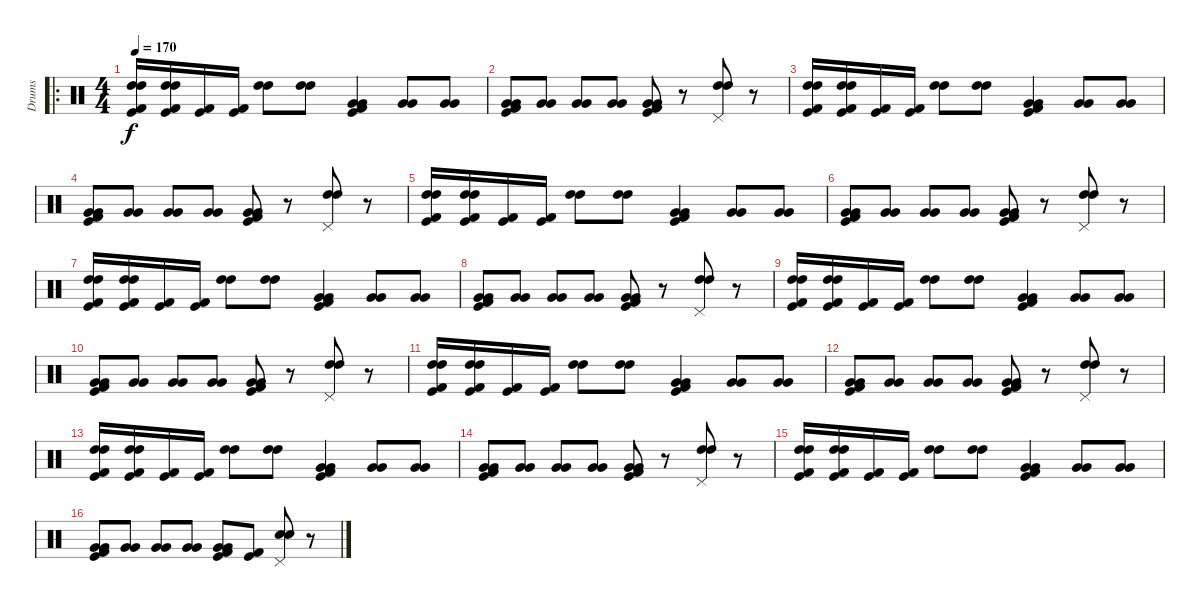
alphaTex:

\track ("Drums" "Drums") {instrument percussion}
\staff {score}
\articulation defaults
\ro
\ts (4 4)
\tempo 170
\clef neutral
\ks c
("High Tom (hit)" "High Tom (hit)" "Kick (hit) 2" "Kick (hit)").16{dy f} ("High Tom (hit)" "High Tom (hit)" "Kick (hit) 2" "Kick (hit)").16 ("Kick (hit) 2" "Kick (hit)").16 ("Kick (hit) 2" "Kick (hit)").16 ("High Tom (hit)" "High Tom (hit)").8 ("High Tom (hit)" "High Tom (hit)").8 ("Very Low Tom (hit)" "Very Low Tom (hit)" "Kick (hit) 2" "Kick (hit)").4 ("Very Low Tom (hit)" "Very Low Tom (hit)").8 ("Very Low Tom (hit)" "Very Low Tom (hit)").8 |
("Very Low Tom (hit)" "Very Low Tom (hit)" "Kick (hit) 2" "Kick (hit)").8 ("Very Low Tom (hit)" "Very Low Tom (hit)").8 ("Very Low Tom (hit)" "Very Low Tom (hit)").8 ("Very Low Tom (hit)" "Very Low Tom (hit)").8 ("Very Low Tom (hit)" "Very Low Tom (hit)" "Kick (hit) 2" "Kick (hit)").8 r.8 ("Pedal Hi-Hat (hit)" "High Tom (hit)" "High Tom (hit)").8 r.8 |
("High Tom (hit)" "High Tom (hit)" "Kick (hit) 2" "Kick (hit)").16 ("High Tom (hit)" "High Tom (hit)" "Kick (hit) 2" "Kick (hit)").16 ("Kick (hit) 2" "Kick (hit)").16 ("Kick (hit) 2" "Kick (hit)").16 ("High Tom (hit)" "High Tom (hit)").8 ("High Tom (hit)" "High Tom (hit)").8 ("Very Low Tom (hit)" "Very Low Tom (hit)" "Kick (hit) 2" "Kick (hit)").4 ("Very Low Tom (hit)" "Very Low Tom (hit)").8 ("Very Low Tom (hit)" "Very Low Tom (hit)").8 |
("Very Low Tom (hit)" "Very Low Tom (hit)" "Kick (hit) 2" "Kick (hit)").8 ("Very Low Tom (hit)" "Very Low Tom (hit)").8 ("Very Low Tom (hit)" "Very Low Tom (hit)").8 ("Very Low Tom (hit)" "Very Low Tom (hit)").8 ("Very Low Tom (hit)" "Very Low Tom (hit)" "Kick (hit) 2" "Kick (hit)").8 r.8 ("Pedal Hi-Hat (hit)" "High Tom (hit)" "High Tom (hit)").8 r.8 |
("High Tom (hit)" "High Tom (hit)" "Kick (hit) 2" "Kick (hit)").16 ("High Tom (hit)" "High Tom (hit)" "Kick (hit) 2" "Kick (hit)").16 ("Kick (hit) 2" "Kick (hit)").16 ("Kick (hit) 2" "Kick (hit)").16 ("High Tom (hit)" "High Tom (hit)").8 ("High Tom (hit)" "High Tom (hit)").8 ("Very Low Tom (hit)" "Very Low Tom (hit)" "Kick (hit) 2" "Kick (hit)").4 ("Very Low Tom (hit)" "Very Low Tom (hit)").8 ("Very Low Tom (hit)" "Very Low Tom (hit)").8 |
("Very Low Tom (hit)" "Very Low Tom (hit)" "Kick (hit) 2" "Kick (hit)").8 ("Very Low Tom (hit)" "Very Low Tom (hit)").8 ("Very Low Tom (hit)" "Very Low Tom (hit)").8 ("Very Low Tom (hit)" "Very Low Tom (hit)").8 ("Very Low Tom (hit)" "Very Low Tom (hit)" "Kick (hit) 2" "Kick (hit)").8 r.8 ("Pedal Hi-Hat (hit)" "High Tom (hit)" "High Tom (hit)").8 r.8 |
("High Tom (hit)" "High Tom (hit)" "Kick (hit) 2" "Kick (hit)").16 ("High Tom (hit)" "High Tom (hit)" "Kick (hit) 2" "Kick (hit)").16 ("Kick (hit) 2" "Kick (hit)").16 ("Kick (hit) 2" "Kick (hit)").16 ("High Tom (hit)" "High Tom (hit)").8 ("High Tom (hit)" "High Tom (hit)").8 ("Very Low Tom (hit)" "Very Low Tom (hit)" "Kick (hit) 2" "Kick (hit)").4 ("Very Low Tom (hit)" "Very Low Tom (hit)").8 ("Very Low Tom (hit)" "Very Low Tom (hit)").8 |
("Very Low Tom (hit)" "Very Low Tom (hit)" "Kick (hit) 2" "Kick (hit)").8 ("Very Low Tom (hit)" "Very Low Tom (hit)").8 ("Very Low Tom (hit)" "Very Low Tom (hit)").8 ("Very Low Tom (hit)" "Very Low Tom (hit)").8 ("Very Low Tom (hit)" "Very Low Tom (hit)" "Kick (hit) 2" "Kick (hit)").8 r.8 ("Pedal Hi-Hat (hit)" "High Tom (hit)" "High Tom (hit)").8 r.8 |
("High Tom (hit)" "High Tom (hit)" "Kick (hit) 2" "Kick (hit)").16 ("High Tom (hit)" "High Tom (hit)" "Kick (hit) 2" "Kick (hit)").16 ("Kick (hit) 2" "Kick (hit)").16 ("Kick (hit) 2" "Kick (hit)").16 ("High Tom (hit)" "High Tom (hit)").8 ("High Tom (hit)" "High Tom (hit)").8 ("Very Low Tom (hit)" "Very Low Tom (hit)" "Kick (hit) 2" "Kick (hit)").4 ("Very Low Tom (hit)" "Very Low Tom (hit)").8 ("Very Low Tom (hit)" "Very Low Tom (hit)").8 |
("Very Low Tom (hit)" "Very Low Tom (hit)" "Kick (hit) 2" "Kick (hit)").8 ("Very Low Tom (hit)" "Very Low Tom (hit)").8 ("Very Low Tom (hit)" "Very Low Tom (hit)").8 ("Very Low Tom (hit)" "Very Low Tom (hit)").8 ("Very Low Tom (hit)" "Very Low Tom (hit)" "Kick (hit) 2" "Kick (hit)").8 r.8 ("Pedal Hi-Hat (hit)" "High Tom (hit)" "High Tom (hit)").8 r.8 |
("High Tom (hit)" "High Tom (hit)" "Kick (hit) 2" "Kick (hit)").16 ("High Tom (hit)" "High Tom (hit)" "Kick (hit) 2" "Kick (hit)").16 ("Kick (hit) 2" "Kick (hit)").16 ("Kick (hit) 2" "Kick (hit)").16 ("High Tom (hit)" "High Tom (hit)").8 ("High Tom (hit)" "High Tom (hit)").8 ("Very Low Tom (hit)" "Very Low Tom (hit)" "Kick (hit) 2" "Kick (hit)").4 ("Very Low Tom (hit)" "Very Low Tom (hit)").8 ("Very Low Tom (hit)" "Very Low Tom (hit)").8 |
("Very Low Tom (hit)" "Very Low Tom (hit)" "Kick (hit) 2" "Kick (hit)").8 ("Very Low Tom (hit)" "Very Low Tom (hit)").8 ("Very Low Tom (hit)" "Very Low Tom (hit)").8 ("Very Low Tom (hit)" "Very Low Tom (hit)").8 ("Very Low Tom (hit)" "Very Low Tom (hit)" "Kick (hit) 2" "Kick (hit)").8 r.8 ("Pedal Hi-Hat (hit)" "High Tom (hit)" "High Tom (hit)").8 r.8 |
("High Tom (hit)" "High Tom (hit)" "Kick (hit) 2" "Kick (hit)").16 ("High Tom (hit)" "High Tom (hit)" "Kick (hit) 2" "Kick (hit)").16 ("Kick (hit) 2" "Kick (hit)").16 ("Kick (hit) 2" "Kick (hit)").16 ("High Tom (hit)" "High Tom (hit)").8 ("High Tom (hit)" "High Tom (hit)").8 ("Very Low Tom (hit)" "Very Low Tom (hit)" "Kick (hit) 2" "Kick (hit)").4 ("Very Low Tom (hit)" "Very Low Tom (hit)").8 ("Very Low Tom (hit)" "Very Low Tom (hit)").8 |
("Very Low Tom (hit)" "Very Low Tom (hit)" "Kick (hit) 2" "Kick (hit)").8 ("Very Low Tom (hit)" "Very Low Tom (hit)").8 ("Very Low Tom (hit)" "Very Low Tom (hit)").8 ("Very Low Tom (hit)" "Very Low Tom (hit)").8 ("Very Low Tom (hit)" "Very Low Tom (hit)" "Kick (hit) 2" "Kick (hit)").8 r.8 ("Pedal Hi-Hat (hit)" "High Tom (hit)" "High Tom (hit)").8 r.8 |
("High Tom (hit)" "High Tom (hit)" "Kick (hit) 2" "Kick (hit)").16 ("High Tom (hit)" "High Tom (hit)" "Kick (hit) 2" "Kick (hit)").16 ("Kick (hit) 2" "Kick (hit)").16 ("Kick (hit) 2" "Kick (hit)").16 ("High Tom (hit)" "High Tom (hit)").8 ("High Tom (hit)" "High Tom (hit)").8 ("Very Low Tom (hit)" "Very Low Tom (hit)" "Kick (hit) 2" "Kick (hit)").4 ("Very Low Tom (hit)" "Very Low Tom (hit)").8 ("Very Low Tom (hit)" "Very Low Tom (hit)").8 |
("Very Low Tom (hit)" "Very Low Tom (hit)" "Kick (hit) 2" "Kick (hit)").8 ("Very Low Tom (hit)" "Very Low Tom (hit)").8 ("Very Low Tom (hit)" "Very Low Tom (hit)").8 ("Very Low Tom (hit)" "Very Low Tom (hit)").8 ("Very Low Tom (hit)" "Very Low Tom (hit)" "Kick (hit) 2" "Kick (hit)").8 ("Kick (hit) 2" "Kick (hit)").8 ("Pedal Hi-Hat (hit)" "Electric Snare (hit)" "Snare (hit) 2").8 r.8
